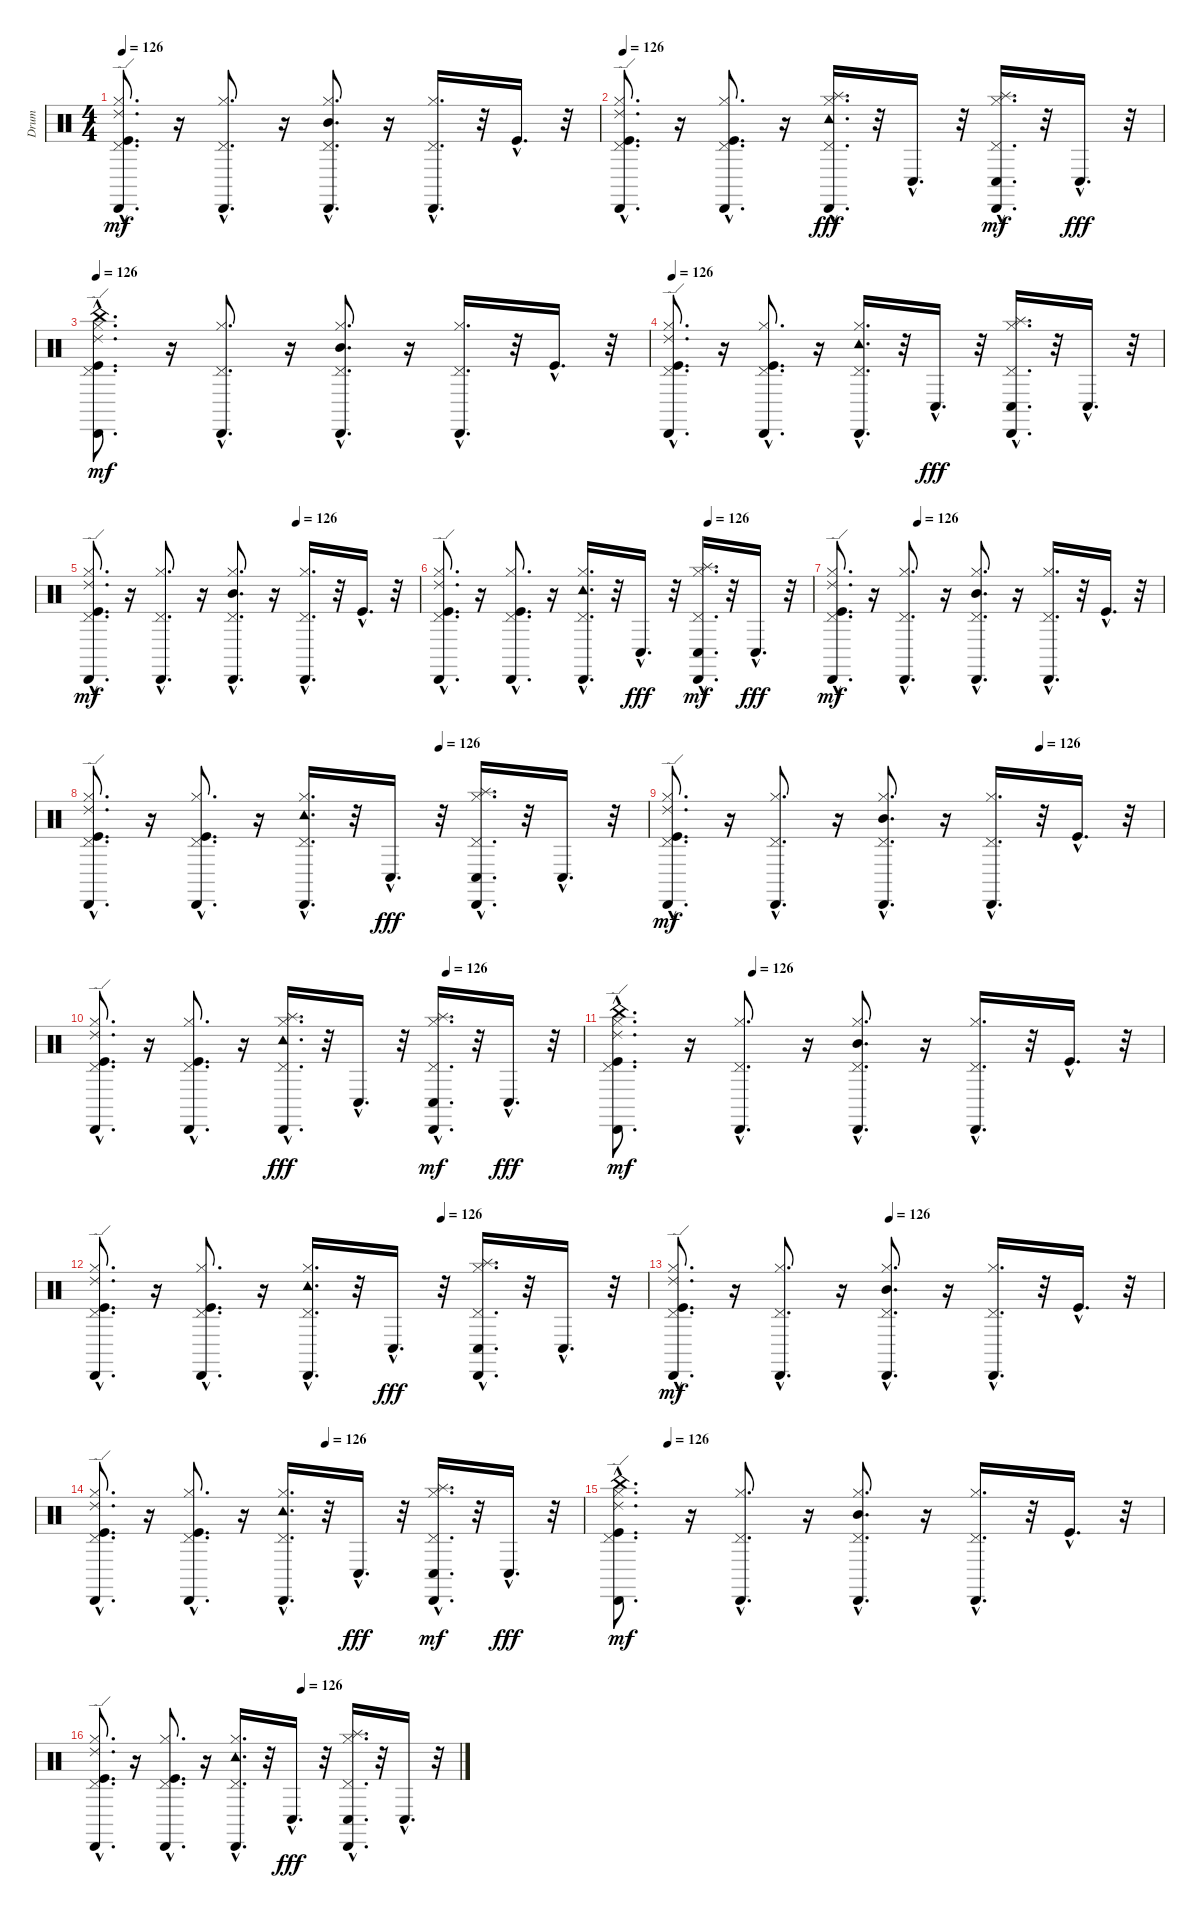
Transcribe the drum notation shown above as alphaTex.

\track ("Drum" "Drum") {instrument percussion}
\staff {score}
\articulation defaults
\ts (4 4)
\tempo 126
\clef neutral
\ks c
("Pedal Hi-Hat (hit)"{hac} "Kick (hit)"{hac} "Hi-Hat (closed)"{hac} "Cabasa (hit)"{hac} "Ride (edge) 2"{hac}).8{d dy mf} r.16 ("Pedal Hi-Hat (hit)"{hac} "Hi-Hat (closed)"{hac} "Cabasa (hit)"{hac}).8{d} r.16 ("Mid Tom (hit)"{hac} "Pedal Hi-Hat (hit)"{hac} "Hi-Hat (closed)"{hac} "Cabasa (hit)"{hac}).8{d} r.16 ("Pedal Hi-Hat (hit)"{hac} "Hi-Hat (closed)"{hac} "Cabasa (hit)"{hac}).16{d} r.32 "Kick (hit)"{hac}.16{d} r.32 |
\tempo 126
("Pedal Hi-Hat (hit)"{hac} "Kick (hit)"{hac} "Hi-Hat (closed)"{hac} "Cabasa (hit)"{hac} "Ride (edge) 2"{hac}).8{d} r.16 ("Pedal Hi-Hat (hit)"{hac} "Kick (hit)"{hac} "Hi-Hat (closed)"{hac} "Cabasa (hit)"{hac}).8{d} r.16 ("Cabasa (hit)"{hac} "Pedal Hi-Hat (hit)"{hac} "Hi-Hat (closed)"{hac} "Tambourine (hit)"{hac} "Splash (hit)"{hac}).16{d dy fff} r.32 "Conga low (hit)"{hac}.16{d} r.32 ("Splash (hit)"{hac} "Conga low (hit)"{hac} "Pedal Hi-Hat (hit)"{hac} "Hi-Hat (closed)"{hac} "Cabasa (hit)"{hac}).16{d dy mf} r.32 "Conga low (hit)"{hac}.16{d dy fff} r.32 |
\tempo 126
("Kick (hit)"{hac} "China (hit)"{hac} "Pedal Hi-Hat (hit)"{hac} "Hi-Hat (closed)"{hac} "Cabasa (hit)"{hac} "Ride (edge) 2"{hac}).8{d dy mf} r.16 ("Pedal Hi-Hat (hit)"{hac} "Hi-Hat (closed)"{hac} "Cabasa (hit)"{hac}).8{d} r.16 ("Pedal Hi-Hat (hit)"{hac} "Mid Tom (hit)"{hac} "Hi-Hat (closed)"{hac} "Cabasa (hit)"{hac}).8{d} r.16 ("Pedal Hi-Hat (hit)"{hac} "Hi-Hat (closed)"{hac} "Cabasa (hit)"{hac}).16{d} r.32 "Kick (hit)"{hac}.16{d} r.32 |
\tempo 126
("Ride (edge) 2"{hac} "Cabasa (hit)"{hac} "Hi-Hat (closed)"{hac} "Kick (hit)"{hac} "Pedal Hi-Hat (hit)"{hac}).8{d} r.16 ("Cabasa (hit)"{hac} "Hi-Hat (closed)"{hac} "Kick (hit)"{hac} "Pedal Hi-Hat (hit)"{hac}).8{d} r.16 ("Hi-Hat (closed)"{hac} "Pedal Hi-Hat (hit)"{hac} "Cabasa (hit)"{hac} "Tambourine (hit)"{hac}).16{d} r.32 "Conga low (hit)"{hac}.16{d dy fff} r.32 ("Splash (hit)"{hac} "Cabasa (hit)"{hac} "Hi-Hat (closed)"{hac} "Pedal Hi-Hat (hit)"{hac} "Conga low (hit)"{hac}).16{d} r.32 "Conga low (hit)"{hac}.16{d} r.32 |
\tempo (126 0.625)
("Pedal Hi-Hat (hit)"{hac} "Kick (hit)"{hac} "Hi-Hat (closed)"{hac} "Cabasa (hit)"{hac} "Ride (edge) 2"{hac}).8{d dy mf} r.16 ("Pedal Hi-Hat (hit)"{hac} "Hi-Hat (closed)"{hac} "Cabasa (hit)"{hac}).8{d} r.16 ("Mid Tom (hit)"{hac} "Pedal Hi-Hat (hit)"{hac} "Hi-Hat (closed)"{hac} "Cabasa (hit)"{hac}).8{d} r.16 ("Pedal Hi-Hat (hit)"{hac} "Hi-Hat (closed)"{hac} "Cabasa (hit)"{hac}).16{d} r.32 "Kick (hit)"{hac}.16{d} r.32 |
\tempo (126 0.71875)
("Pedal Hi-Hat (hit)"{hac} "Kick (hit)"{hac} "Hi-Hat (closed)"{hac} "Cabasa (hit)"{hac} "Ride (edge) 2"{hac}).8{d} r.16 ("Pedal Hi-Hat (hit)"{hac} "Kick (hit)"{hac} "Hi-Hat (closed)"{hac} "Cabasa (hit)"{hac}).8{d} r.16 ("Cabasa (hit)"{hac} "Pedal Hi-Hat (hit)"{hac} "Hi-Hat (closed)"{hac} "Tambourine (hit)"{hac}).16{d} r.32 "Conga low (hit)"{hac}.16{d dy fff} r.32 ("Splash (hit)"{hac} "Conga low (hit)"{hac} "Pedal Hi-Hat (hit)"{hac} "Hi-Hat (closed)"{hac} "Cabasa (hit)"{hac}).16{d dy mf} r.32 "Conga low (hit)"{hac}.16{d dy fff} r.32 |
\tempo (126 0.25)
("Kick (hit)"{hac} "Pedal Hi-Hat (hit)"{hac} "Hi-Hat (closed)"{hac} "Cabasa (hit)"{hac} "Ride (edge) 2"{hac}).8{d dy mf} r.16 ("Pedal Hi-Hat (hit)"{hac} "Hi-Hat (closed)"{hac} "Cabasa (hit)"{hac}).8{d} r.16 ("Pedal Hi-Hat (hit)"{hac} "Mid Tom (hit)"{hac} "Hi-Hat (closed)"{hac} "Cabasa (hit)"{hac}).8{d} r.16 ("Pedal Hi-Hat (hit)"{hac} "Hi-Hat (closed)"{hac} "Cabasa (hit)"{hac}).16{d} r.32 "Kick (hit)"{hac}.16{d} r.32 |
\tempo (126 0.625)
("Ride (edge) 2"{hac} "Cabasa (hit)"{hac} "Hi-Hat (closed)"{hac} "Kick (hit)"{hac} "Pedal Hi-Hat (hit)"{hac}).8{d} r.16 ("Cabasa (hit)"{hac} "Hi-Hat (closed)"{hac} "Kick (hit)"{hac} "Pedal Hi-Hat (hit)"{hac}).8{d} r.16 ("Hi-Hat (closed)"{hac} "Pedal Hi-Hat (hit)"{hac} "Cabasa (hit)"{hac} "Tambourine (hit)"{hac}).16{d} r.32 "Conga low (hit)"{hac}.16{d dy fff} r.32 ("Splash (hit)"{hac} "Cabasa (hit)"{hac} "Hi-Hat (closed)"{hac} "Pedal Hi-Hat (hit)"{hac} "Conga low (hit)"{hac}).16{d} r.32 "Conga low (hit)"{hac}.16{d} r.32 |
\tempo (126 0.75)
("Pedal Hi-Hat (hit)"{hac} "Kick (hit)"{hac} "Hi-Hat (closed)"{hac} "Cabasa (hit)"{hac} "Ride (edge) 2"{hac}).8{d dy mf} r.16 ("Pedal Hi-Hat (hit)"{hac} "Hi-Hat (closed)"{hac} "Cabasa (hit)"{hac}).8{d} r.16 ("Mid Tom (hit)"{hac} "Pedal Hi-Hat (hit)"{hac} "Hi-Hat (closed)"{hac} "Cabasa (hit)"{hac}).8{d} r.16 ("Pedal Hi-Hat (hit)"{hac} "Hi-Hat (closed)"{hac} "Cabasa (hit)"{hac}).16{d} r.32 "Kick (hit)"{hac}.16{d} r.32 |
\tempo (126 0.71875)
("Pedal Hi-Hat (hit)"{hac} "Kick (hit)"{hac} "Hi-Hat (closed)"{hac} "Cabasa (hit)"{hac} "Ride (edge) 2"{hac}).8{d} r.16 ("Pedal Hi-Hat (hit)"{hac} "Kick (hit)"{hac} "Hi-Hat (closed)"{hac} "Cabasa (hit)"{hac}).8{d} r.16 ("Cabasa (hit)"{hac} "Pedal Hi-Hat (hit)"{hac} "Hi-Hat (closed)"{hac} "Tambourine (hit)"{hac} "Splash (hit)"{hac}).16{d dy fff} r.32 "Conga low (hit)"{hac}.16{d} r.32 ("Splash (hit)"{hac} "Conga low (hit)"{hac} "Pedal Hi-Hat (hit)"{hac} "Hi-Hat (closed)"{hac} "Cabasa (hit)"{hac}).16{d dy mf} r.32 "Conga low (hit)"{hac}.16{d dy fff} r.32 |
\tempo (126 0.25)
("Kick (hit)"{hac} "China (hit)"{hac} "Pedal Hi-Hat (hit)"{hac} "Hi-Hat (closed)"{hac} "Cabasa (hit)"{hac} "Ride (edge) 2"{hac}).8{d dy mf} r.16 ("Pedal Hi-Hat (hit)"{hac} "Hi-Hat (closed)"{hac} "Cabasa (hit)"{hac}).8{d} r.16 ("Pedal Hi-Hat (hit)"{hac} "Mid Tom (hit)"{hac} "Hi-Hat (closed)"{hac} "Cabasa (hit)"{hac}).8{d} r.16 ("Pedal Hi-Hat (hit)"{hac} "Hi-Hat (closed)"{hac} "Cabasa (hit)"{hac}).16{d} r.32 "Kick (hit)"{hac}.16{d} r.32 |
\tempo (126 0.625)
("Ride (edge) 2"{hac} "Cabasa (hit)"{hac} "Hi-Hat (closed)"{hac} "Kick (hit)"{hac} "Pedal Hi-Hat (hit)"{hac}).8{d} r.16 ("Cabasa (hit)"{hac} "Hi-Hat (closed)"{hac} "Kick (hit)"{hac} "Pedal Hi-Hat (hit)"{hac}).8{d} r.16 ("Hi-Hat (closed)"{hac} "Pedal Hi-Hat (hit)"{hac} "Cabasa (hit)"{hac} "Tambourine (hit)"{hac}).16{d} r.32 "Conga low (hit)"{hac}.16{d dy fff} r.32 ("Splash (hit)"{hac} "Cabasa (hit)"{hac} "Hi-Hat (closed)"{hac} "Pedal Hi-Hat (hit)"{hac} "Conga low (hit)"{hac}).16{d} r.32 "Conga low (hit)"{hac}.16{d} r.32 |
\tempo (126 0.4375)
("Pedal Hi-Hat (hit)"{hac} "Kick (hit)"{hac} "Hi-Hat (closed)"{hac} "Cabasa (hit)"{hac} "Ride (edge) 2"{hac}).8{d dy mf} r.16 ("Pedal Hi-Hat (hit)"{hac} "Hi-Hat (closed)"{hac} "Cabasa (hit)"{hac}).8{d} r.16 ("Mid Tom (hit)"{hac} "Pedal Hi-Hat (hit)"{hac} "Hi-Hat (closed)"{hac} "Cabasa (hit)"{hac}).8{d} r.16 ("Pedal Hi-Hat (hit)"{hac} "Hi-Hat (closed)"{hac} "Cabasa (hit)"{hac}).16{d} r.32 "Kick (hit)"{hac}.16{d} r.32 |
\tempo (126 0.46875)
("Pedal Hi-Hat (hit)"{hac} "Kick (hit)"{hac} "Hi-Hat (closed)"{hac} "Cabasa (hit)"{hac} "Ride (edge) 2"{hac}).8{d} r.16 ("Pedal Hi-Hat (hit)"{hac} "Kick (hit)"{hac} "Hi-Hat (closed)"{hac} "Cabasa (hit)"{hac}).8{d} r.16 ("Cabasa (hit)"{hac} "Pedal Hi-Hat (hit)"{hac} "Hi-Hat (closed)"{hac} "Tambourine (hit)"{hac}).16{d} r.32 "Conga low (hit)"{hac}.16{d dy fff} r.32 ("Splash (hit)"{hac} "Conga low (hit)"{hac} "Pedal Hi-Hat (hit)"{hac} "Hi-Hat (closed)"{hac} "Cabasa (hit)"{hac}).16{d dy mf} r.32 "Conga low (hit)"{hac}.16{d dy fff} r.32 |
\tempo (126 0.09375)
("Kick (hit)"{hac} "China (hit)"{hac} "Pedal Hi-Hat (hit)"{hac} "Hi-Hat (closed)"{hac} "Cabasa (hit)"{hac} "Ride (edge) 2"{hac}).8{d dy mf} r.16 ("Pedal Hi-Hat (hit)"{hac} "Hi-Hat (closed)"{hac} "Cabasa (hit)"{hac}).8{d} r.16 ("Pedal Hi-Hat (hit)"{hac} "Cabasa (hit)"{hac} "Mid Tom (hit)"{hac} "Hi-Hat (closed)"{hac}).8{d} r.16 ("Pedal Hi-Hat (hit)"{hac} "Hi-Hat (closed)"{hac} "Cabasa (hit)"{hac}).16{d} r.32 "Kick (hit)"{hac}.16{d} r.32 |
\tempo (126 0.5625)
("Cabasa (hit)"{hac} "Ride (edge) 2"{hac} "Hi-Hat (closed)"{hac} "Kick (hit)"{hac} "Pedal Hi-Hat (hit)"{hac}).8{d} r.16 ("Kick (hit)"{hac} "Pedal Hi-Hat (hit)"{hac} "Hi-Hat (closed)"{hac} "Cabasa (hit)"{hac}).8{d} r.16 ("Pedal Hi-Hat (hit)"{hac} "Hi-Hat (closed)"{hac} "Cabasa (hit)"{hac} "Tambourine (hit)"{hac}).16{d} r.32 "Conga low (hit)"{hac}.16{d dy fff} r.32 ("Splash (hit)"{hac} "Cabasa (hit)"{hac} "Pedal Hi-Hat (hit)"{hac} "Hi-Hat (closed)"{hac} "Conga low (hit)"{hac}).16{d} r.32 "Conga low (hit)"{hac}.16{d} r.32
